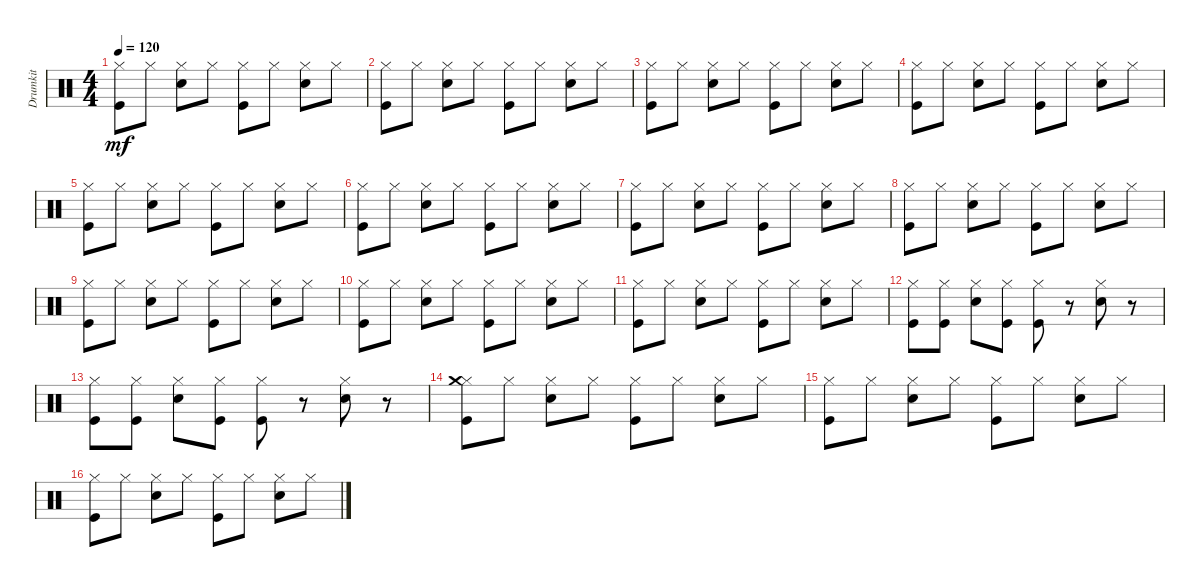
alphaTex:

\track ("Drumkit" "Drumkit") {instrument percussion}
\staff {score}
\articulation defaults
\ts (4 4)
\tempo 120
\clef neutral
\ks c
("Hi-Hat (closed)" "Kick (hit)").8{dy mf} "Hi-Hat (closed)".8 ("Hi-Hat (closed)" "Snare (hit) 2").8 "Hi-Hat (closed)".8 ("Hi-Hat (closed)" "Kick (hit)").8 "Hi-Hat (closed)".8 ("Hi-Hat (closed)" "Snare (hit) 2").8 "Hi-Hat (closed)".8 |
("Hi-Hat (closed)" "Kick (hit)").8 "Hi-Hat (closed)".8 ("Hi-Hat (closed)" "Snare (hit) 2").8 "Hi-Hat (closed)".8 ("Hi-Hat (closed)" "Kick (hit)").8 "Hi-Hat (closed)".8 ("Hi-Hat (closed)" "Snare (hit) 2").8 "Hi-Hat (closed)".8 |
("Hi-Hat (closed)" "Kick (hit)").8 "Hi-Hat (closed)".8 ("Hi-Hat (closed)" "Snare (hit) 2").8 "Hi-Hat (closed)".8 ("Hi-Hat (closed)" "Kick (hit)").8 "Hi-Hat (closed)".8 ("Hi-Hat (closed)" "Snare (hit) 2").8 "Hi-Hat (closed)".8 |
("Hi-Hat (closed)" "Kick (hit)").8 "Hi-Hat (closed)".8 ("Hi-Hat (closed)" "Snare (hit) 2").8 "Hi-Hat (closed)".8 ("Hi-Hat (closed)" "Kick (hit)").8 "Hi-Hat (closed)".8 ("Hi-Hat (closed)" "Snare (hit) 2").8 "Hi-Hat (closed)".8 |
("Hi-Hat (closed)" "Kick (hit)").8 "Hi-Hat (closed)".8 ("Hi-Hat (closed)" "Snare (hit) 2").8 "Hi-Hat (closed)".8 ("Hi-Hat (closed)" "Kick (hit)").8 "Hi-Hat (closed)".8 ("Hi-Hat (closed)" "Snare (hit) 2").8 "Hi-Hat (closed)".8 |
("Hi-Hat (closed)" "Kick (hit)").8 "Hi-Hat (closed)".8 ("Hi-Hat (closed)" "Snare (hit) 2").8 "Hi-Hat (closed)".8 ("Hi-Hat (closed)" "Kick (hit)").8 "Hi-Hat (closed)".8 ("Hi-Hat (closed)" "Snare (hit) 2").8 "Hi-Hat (closed)".8 |
("Hi-Hat (closed)" "Kick (hit)").8 "Hi-Hat (closed)".8 ("Hi-Hat (closed)" "Snare (hit) 2").8 "Hi-Hat (closed)".8 ("Hi-Hat (closed)" "Kick (hit)").8 "Hi-Hat (closed)".8 ("Hi-Hat (closed)" "Snare (hit) 2").8 "Hi-Hat (closed)".8 |
("Hi-Hat (closed)" "Kick (hit)").8 "Hi-Hat (closed)".8 ("Hi-Hat (closed)" "Snare (hit) 2").8 "Hi-Hat (closed)".8 ("Hi-Hat (closed)" "Kick (hit)").8 "Hi-Hat (closed)".8 ("Hi-Hat (closed)" "Snare (hit) 2").8 "Hi-Hat (closed)".8 |
("Hi-Hat (closed)" "Kick (hit)").8 "Hi-Hat (closed)".8 ("Hi-Hat (closed)" "Snare (hit) 2").8 "Hi-Hat (closed)".8 ("Hi-Hat (closed)" "Kick (hit)").8 "Hi-Hat (closed)".8 ("Hi-Hat (closed)" "Snare (hit) 2").8 "Hi-Hat (closed)".8 |
("Hi-Hat (closed)" "Kick (hit)").8 "Hi-Hat (closed)".8 ("Hi-Hat (closed)" "Snare (hit) 2").8 "Hi-Hat (closed)".8 ("Hi-Hat (closed)" "Kick (hit)").8 "Hi-Hat (closed)".8 ("Hi-Hat (closed)" "Snare (hit) 2").8 "Hi-Hat (closed)".8 |
("Hi-Hat (closed)" "Kick (hit)").8 "Hi-Hat (closed)".8 ("Hi-Hat (closed)" "Snare (hit) 2").8 "Hi-Hat (closed)".8 ("Hi-Hat (closed)" "Kick (hit)").8 "Hi-Hat (closed)".8 ("Hi-Hat (closed)" "Snare (hit) 2").8 "Hi-Hat (closed)".8 |
("Hi-Hat (closed)" "Kick (hit)").8 ("Hi-Hat (closed)" "Kick (hit)").8 ("Hi-Hat (closed)" "Snare (hit) 2").8 ("Hi-Hat (closed)" "Kick (hit)").8 ("Hi-Hat (closed)" "Kick (hit)").8 r.8 ("Hi-Hat (closed)" "Snare (hit) 2").8 r.8 |
("Hi-Hat (closed)" "Kick (hit)").8 ("Hi-Hat (closed)" "Kick (hit)").8 ("Hi-Hat (closed)" "Snare (hit) 2").8 ("Hi-Hat (closed)" "Kick (hit)").8 ("Hi-Hat (closed)" "Kick (hit)").8 r.8 ("Hi-Hat (closed)" "Snare (hit) 2").8 r.8 |
("Hi-Hat (closed)" "Kick (hit)" "Crash medium (hit)").8 "Hi-Hat (closed)".8 ("Hi-Hat (closed)" "Snare (hit) 2").8 "Hi-Hat (closed)".8 ("Hi-Hat (closed)" "Kick (hit)").8 "Hi-Hat (closed)".8 ("Hi-Hat (closed)" "Snare (hit) 2").8 "Hi-Hat (closed)".8 |
("Hi-Hat (closed)" "Kick (hit)").8 "Hi-Hat (closed)".8 ("Hi-Hat (closed)" "Snare (hit) 2").8 "Hi-Hat (closed)".8 ("Hi-Hat (closed)" "Kick (hit)").8 "Hi-Hat (closed)".8 ("Hi-Hat (closed)" "Snare (hit) 2").8 "Hi-Hat (closed)".8 |
("Hi-Hat (closed)" "Kick (hit)").8 "Hi-Hat (closed)".8 ("Hi-Hat (closed)" "Snare (hit) 2").8 "Hi-Hat (closed)".8 ("Hi-Hat (closed)" "Kick (hit)").8 "Hi-Hat (closed)".8 ("Hi-Hat (closed)" "Snare (hit) 2").8 "Hi-Hat (closed)".8
